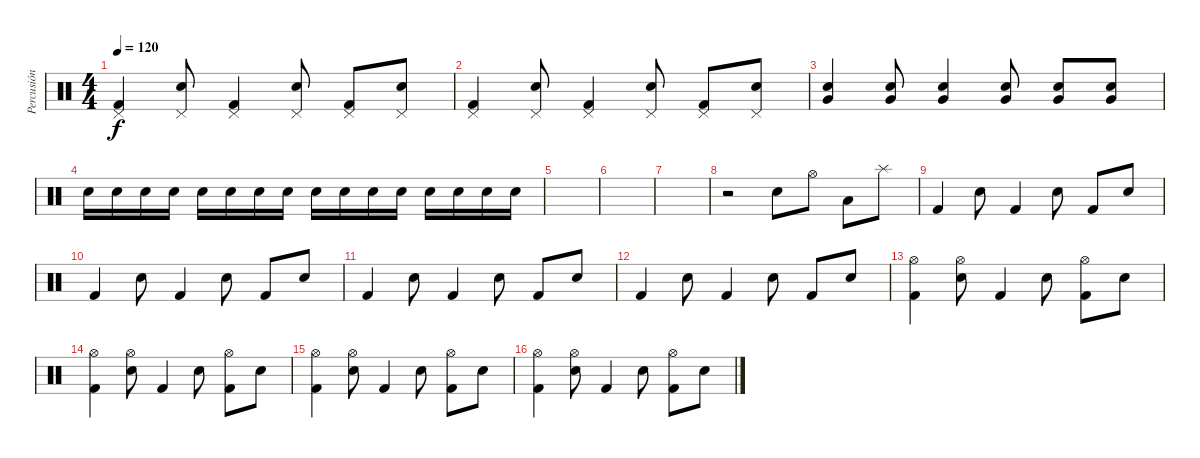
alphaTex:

\track ("Percusión" "Percusión") {instrument percussion}
\staff {score}
\articulation defaults
\ts (4 4)
\tempo 120
\clef neutral
\ks c
("Kick (hit) 2" "Pedal Hi-Hat (hit)").4{dy f} ("Snare (hit) 2" "Pedal Hi-Hat (hit)").8 ("Kick (hit) 2" "Pedal Hi-Hat (hit)").4 ("Electric Snare (hit)" "Pedal Hi-Hat (hit)").8 ("Kick (hit) 2" "Pedal Hi-Hat (hit)").8 ("Snare (hit) 2" "Pedal Hi-Hat (hit)").8 |
("Kick (hit) 2" "Pedal Hi-Hat (hit)").4 ("Snare (hit) 2" "Pedal Hi-Hat (hit)").8 ("Kick (hit) 2" "Pedal Hi-Hat (hit)").4 ("Electric Snare (hit)" "Pedal Hi-Hat (hit)").8 ("Kick (hit) 2" "Pedal Hi-Hat (hit)").8 ("Snare (hit) 2" "Pedal Hi-Hat (hit)").8 |
("Electric Snare (hit)" "Very Low Tom (hit)").4 ("Electric Snare (hit)" "Very Low Tom (hit)").8 ("Electric Snare (hit)" "Very Low Tom (hit)").4 ("Electric Snare (hit)" "Very Low Tom (hit)").8 ("Electric Snare (hit)" "Very Low Tom (hit)").8 ("Electric Snare (hit)" "Very Low Tom (hit)").8 |
"Snare (hit) 2".16 "Snare (hit) 2".16 "Snare (hit) 2".16 "Snare (hit) 2".16 "Snare (hit) 2".16 "Snare (hit) 2".16 "Snare (hit) 2".16 "Snare (hit) 2".16 "Electric Snare (hit)".16 "Electric Snare (hit)".16 "Electric Snare (hit)".16 "Electric Snare (hit)".16 "Electric Snare (hit)".16 "Electric Snare (hit)".16 "Electric Snare (hit)".16 "Electric Snare (hit)".16 |
|
|
|
r.2 "Snare (hit) 2".8 "Hi-Hat (open)".8 "Low Tom (hit)".8 "Splash (hit)".8 |
"Kick (hit) 2".4 "Snare (hit) 2".8 "Kick (hit) 2".4 "Electric Snare (hit)".8 "Kick (hit) 2".8 "Snare (hit) 2".8 |
"Kick (hit) 2".4 "Snare (hit) 2".8 "Kick (hit) 2".4 "Electric Snare (hit)".8 "Kick (hit) 2".8 "Snare (hit) 2".8 |
"Kick (hit) 2".4 "Snare (hit) 2".8 "Kick (hit) 2".4 "Electric Snare (hit)".8 "Kick (hit) 2".8 "Snare (hit) 2".8 |
"Kick (hit) 2".4 "Snare (hit) 2".8 "Kick (hit) 2".4 "Electric Snare (hit)".8 "Kick (hit) 2".8 "Snare (hit) 2".8 |
("Kick (hit) 2" "Hi-Hat (open)").4 ("Snare (hit) 2" "Hi-Hat (open)").8 "Kick (hit) 2".4 "Electric Snare (hit)".8 ("Kick (hit) 2" "Hi-Hat (open)").8 "Snare (hit) 2".8 |
("Kick (hit) 2" "Hi-Hat (open)").4 ("Snare (hit) 2" "Hi-Hat (open)").8 "Kick (hit) 2".4 "Electric Snare (hit)".8 ("Kick (hit) 2" "Hi-Hat (open)").8 "Snare (hit) 2".8 |
("Kick (hit) 2" "Hi-Hat (open)").4 ("Snare (hit) 2" "Hi-Hat (open)").8 "Kick (hit) 2".4 "Electric Snare (hit)".8 ("Kick (hit) 2" "Hi-Hat (open)").8 "Snare (hit) 2".8 |
("Kick (hit) 2" "Hi-Hat (open)").4 ("Snare (hit) 2" "Hi-Hat (open)").8 "Kick (hit) 2".4 "Electric Snare (hit)".8 ("Kick (hit) 2" "Hi-Hat (open)").8 "Snare (hit) 2".8
